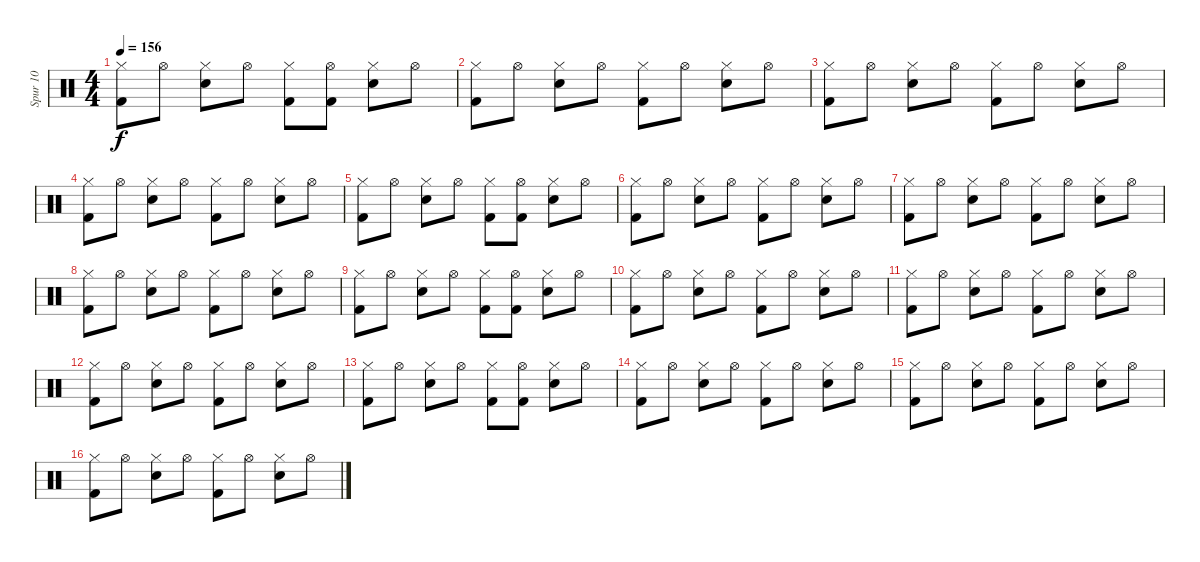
\track ("Spur 10" "Spur 10") {instrument percussion}
\staff {score}
\articulation defaults
\ts (4 4)
\tempo 156
\clef neutral
\ks c
("Hi-Hat (closed)" "Kick (hit) 2").8{dy f} "Hi-Hat (open)".8 ("Hi-Hat (closed)" "Electric Snare (hit)").8 "Hi-Hat (open)".8 ("Hi-Hat (closed)" "Kick (hit) 2").8 ("Hi-Hat (open)" "Kick (hit) 2").8 ("Hi-Hat (closed)" "Electric Snare (hit)").8 "Hi-Hat (open)".8 |
("Hi-Hat (closed)" "Kick (hit) 2").8 "Hi-Hat (open)".8 ("Hi-Hat (closed)" "Electric Snare (hit)").8 "Hi-Hat (open)".8 ("Hi-Hat (closed)" "Kick (hit) 2").8 "Hi-Hat (open)".8 ("Hi-Hat (closed)" "Electric Snare (hit)").8 "Hi-Hat (open)".8 |
("Hi-Hat (closed)" "Kick (hit) 2").8 "Hi-Hat (open)".8 ("Hi-Hat (closed)" "Electric Snare (hit)").8 "Hi-Hat (open)".8 ("Hi-Hat (closed)" "Kick (hit) 2").8 "Hi-Hat (open)".8 ("Hi-Hat (closed)" "Electric Snare (hit)").8 "Hi-Hat (open)".8 |
("Hi-Hat (closed)" "Kick (hit) 2").8 "Hi-Hat (open)".8 ("Hi-Hat (closed)" "Electric Snare (hit)").8 "Hi-Hat (open)".8 ("Hi-Hat (closed)" "Kick (hit) 2").8 "Hi-Hat (open)".8 ("Hi-Hat (closed)" "Electric Snare (hit)").8 "Hi-Hat (open)".8 |
("Hi-Hat (closed)" "Kick (hit) 2").8 "Hi-Hat (open)".8 ("Hi-Hat (closed)" "Electric Snare (hit)").8 "Hi-Hat (open)".8 ("Hi-Hat (closed)" "Kick (hit) 2").8 ("Hi-Hat (open)" "Kick (hit) 2").8 ("Hi-Hat (closed)" "Electric Snare (hit)").8 "Hi-Hat (open)".8 |
("Hi-Hat (closed)" "Kick (hit) 2").8 "Hi-Hat (open)".8 ("Hi-Hat (closed)" "Electric Snare (hit)").8 "Hi-Hat (open)".8 ("Hi-Hat (closed)" "Kick (hit) 2").8 "Hi-Hat (open)".8 ("Hi-Hat (closed)" "Electric Snare (hit)").8 "Hi-Hat (open)".8 |
("Hi-Hat (closed)" "Kick (hit) 2").8 "Hi-Hat (open)".8 ("Hi-Hat (closed)" "Electric Snare (hit)").8 "Hi-Hat (open)".8 ("Hi-Hat (closed)" "Kick (hit) 2").8 "Hi-Hat (open)".8 ("Hi-Hat (closed)" "Electric Snare (hit)").8 "Hi-Hat (open)".8 |
("Hi-Hat (closed)" "Kick (hit) 2").8 "Hi-Hat (open)".8 ("Hi-Hat (closed)" "Electric Snare (hit)").8 "Hi-Hat (open)".8 ("Hi-Hat (closed)" "Kick (hit) 2").8 "Hi-Hat (open)".8 ("Hi-Hat (closed)" "Electric Snare (hit)").8 "Hi-Hat (open)".8 |
("Hi-Hat (closed)" "Kick (hit) 2").8 "Hi-Hat (open)".8 ("Hi-Hat (closed)" "Electric Snare (hit)").8 "Hi-Hat (open)".8 ("Hi-Hat (closed)" "Kick (hit) 2").8 ("Hi-Hat (open)" "Kick (hit) 2").8 ("Hi-Hat (closed)" "Electric Snare (hit)").8 "Hi-Hat (open)".8 |
("Hi-Hat (closed)" "Kick (hit) 2").8 "Hi-Hat (open)".8 ("Hi-Hat (closed)" "Electric Snare (hit)").8 "Hi-Hat (open)".8 ("Hi-Hat (closed)" "Kick (hit) 2").8 "Hi-Hat (open)".8 ("Hi-Hat (closed)" "Electric Snare (hit)").8 "Hi-Hat (open)".8 |
("Hi-Hat (closed)" "Kick (hit) 2").8 "Hi-Hat (open)".8 ("Hi-Hat (closed)" "Electric Snare (hit)").8 "Hi-Hat (open)".8 ("Hi-Hat (closed)" "Kick (hit) 2").8 "Hi-Hat (open)".8 ("Hi-Hat (closed)" "Electric Snare (hit)").8 "Hi-Hat (open)".8 |
("Hi-Hat (closed)" "Kick (hit) 2").8 "Hi-Hat (open)".8 ("Hi-Hat (closed)" "Electric Snare (hit)").8 "Hi-Hat (open)".8 ("Hi-Hat (closed)" "Kick (hit) 2").8 "Hi-Hat (open)".8 ("Hi-Hat (closed)" "Electric Snare (hit)").8 "Hi-Hat (open)".8 |
("Hi-Hat (closed)" "Kick (hit) 2").8 "Hi-Hat (open)".8 ("Hi-Hat (closed)" "Electric Snare (hit)").8 "Hi-Hat (open)".8 ("Hi-Hat (closed)" "Kick (hit) 2").8 ("Hi-Hat (open)" "Kick (hit) 2").8 ("Hi-Hat (closed)" "Electric Snare (hit)").8 "Hi-Hat (open)".8 |
("Hi-Hat (closed)" "Kick (hit) 2").8 "Hi-Hat (open)".8 ("Hi-Hat (closed)" "Electric Snare (hit)").8 "Hi-Hat (open)".8 ("Hi-Hat (closed)" "Kick (hit) 2").8 "Hi-Hat (open)".8 ("Hi-Hat (closed)" "Electric Snare (hit)").8 "Hi-Hat (open)".8 |
("Hi-Hat (closed)" "Kick (hit) 2").8 "Hi-Hat (open)".8 ("Hi-Hat (closed)" "Electric Snare (hit)").8 "Hi-Hat (open)".8 ("Hi-Hat (closed)" "Kick (hit) 2").8 "Hi-Hat (open)".8 ("Hi-Hat (closed)" "Electric Snare (hit)").8 "Hi-Hat (open)".8 |
("Hi-Hat (closed)" "Kick (hit) 2").8 "Hi-Hat (open)".8 ("Hi-Hat (closed)" "Electric Snare (hit)").8 "Hi-Hat (open)".8 ("Hi-Hat (closed)" "Kick (hit) 2").8 "Hi-Hat (open)".8 ("Hi-Hat (closed)" "Electric Snare (hit)").8 "Hi-Hat (open)".8
